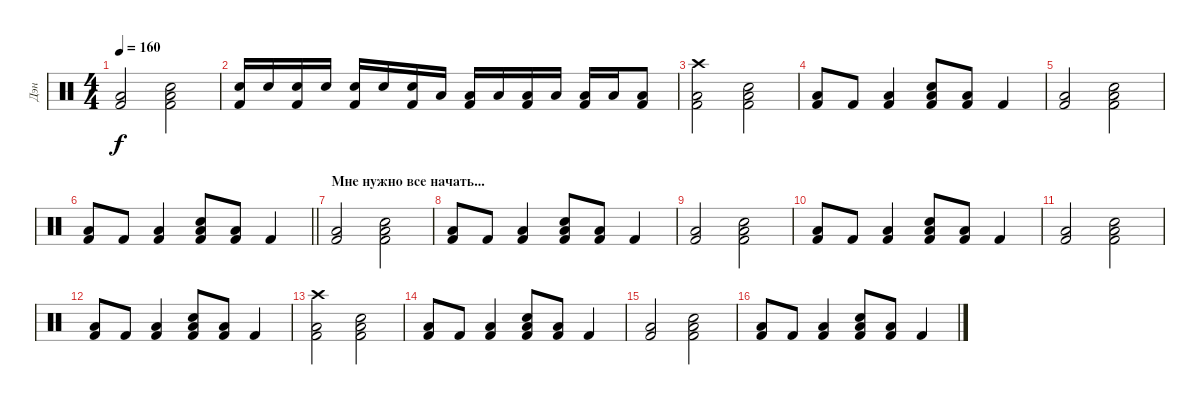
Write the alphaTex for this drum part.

\track ("Дэн" "Дэн") {instrument percussion}
\staff {score}
\articulation defaults
\ts (4 4)
\tempo 160
\clef neutral
\ks c
("Low Tom (hit)" "Kick (hit) 2").2{dy f} ("Electric Snare (hit)" "Low Tom (hit)" "Kick (hit) 2").2 |
("Electric Snare (hit)" "Kick (hit) 2").16 "Electric Snare (hit)".16 ("Electric Snare (hit)" "Kick (hit) 2").16 "Electric Snare (hit)".16 ("Electric Snare (hit)" "Kick (hit) 2").16 "Electric Snare (hit)".16 ("Electric Snare (hit)" "Kick (hit) 2").16 "Low Tom (hit)".16 ("Low Tom (hit)" "Kick (hit) 2").16 "Low Tom (hit)".16 ("Low Tom (hit)" "Kick (hit) 2").16 "Low Tom (hit)".16 ("Low Tom (hit)" "Kick (hit) 2").16 "Low Tom (hit)".16 ("Low Tom (hit)" "Kick (hit) 2").8 |
("Crash high (hit)" "Low Tom (hit)" "Kick (hit) 2").2 ("Electric Snare (hit)" "Low Tom (hit)" "Kick (hit) 2").2 |
("Low Tom (hit)" "Kick (hit) 2").8 "Kick (hit) 2".8 ("Low Tom (hit)" "Kick (hit) 2").4 ("Electric Snare (hit)" "Low Tom (hit)" "Kick (hit) 2").8 ("Low Tom (hit)" "Kick (hit) 2").8 "Kick (hit) 2".4 |
("Low Tom (hit)" "Kick (hit) 2").2 ("Electric Snare (hit)" "Low Tom (hit)" "Kick (hit) 2").2 |
\barLineRight lightlight
("Low Tom (hit)" "Kick (hit) 2").8 "Kick (hit) 2".8 ("Low Tom (hit)" "Kick (hit) 2").4 ("Electric Snare (hit)" "Low Tom (hit)" "Kick (hit) 2").8 ("Low Tom (hit)" "Kick (hit) 2").8 "Kick (hit) 2".4 |
\section ("" "Мне нужно все начать...")
("Low Tom (hit)" "Kick (hit) 2").2 ("Electric Snare (hit)" "Low Tom (hit)" "Kick (hit) 2").2 |
("Low Tom (hit)" "Kick (hit) 2").8 "Kick (hit) 2".8 ("Low Tom (hit)" "Kick (hit) 2").4 ("Electric Snare (hit)" "Low Tom (hit)" "Kick (hit) 2").8 ("Low Tom (hit)" "Kick (hit) 2").8 "Kick (hit) 2".4 |
("Low Tom (hit)" "Kick (hit) 2").2 ("Electric Snare (hit)" "Low Tom (hit)" "Kick (hit) 2").2 |
("Low Tom (hit)" "Kick (hit) 2").8 "Kick (hit) 2".8 ("Low Tom (hit)" "Kick (hit) 2").4 ("Electric Snare (hit)" "Low Tom (hit)" "Kick (hit) 2").8 ("Low Tom (hit)" "Kick (hit) 2").8 "Kick (hit) 2".4 |
("Low Tom (hit)" "Kick (hit) 2").2 ("Electric Snare (hit)" "Low Tom (hit)" "Kick (hit) 2").2 |
("Low Tom (hit)" "Kick (hit) 2").8 "Kick (hit) 2".8 ("Low Tom (hit)" "Kick (hit) 2").4 ("Electric Snare (hit)" "Low Tom (hit)" "Kick (hit) 2").8 ("Low Tom (hit)" "Kick (hit) 2").8 "Kick (hit) 2".4 |
("Crash high (hit)" "Low Tom (hit)" "Kick (hit) 2").2 ("Electric Snare (hit)" "Low Tom (hit)" "Kick (hit) 2").2 |
("Low Tom (hit)" "Kick (hit) 2").8 "Kick (hit) 2".8 ("Low Tom (hit)" "Kick (hit) 2").4 ("Electric Snare (hit)" "Low Tom (hit)" "Kick (hit) 2").8 ("Low Tom (hit)" "Kick (hit) 2").8 "Kick (hit) 2".4 |
("Low Tom (hit)" "Kick (hit) 2").2 ("Electric Snare (hit)" "Low Tom (hit)" "Kick (hit) 2").2 |
("Low Tom (hit)" "Kick (hit) 2").8 "Kick (hit) 2".8 ("Low Tom (hit)" "Kick (hit) 2").4 ("Electric Snare (hit)" "Low Tom (hit)" "Kick (hit) 2").8 ("Low Tom (hit)" "Kick (hit) 2").8 "Kick (hit) 2".4
